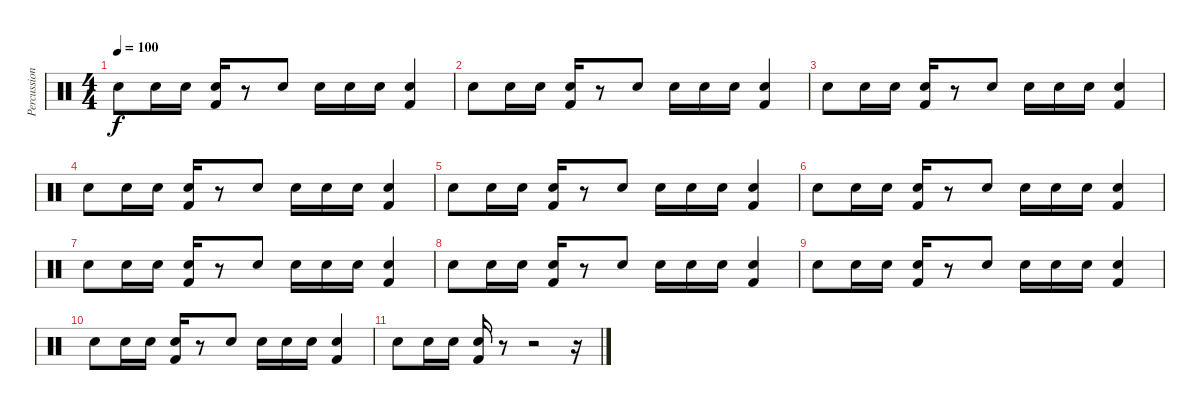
\track ("Percussions" "Percussion") {instrument percussion}
\staff {score}
\articulation defaults
\ts (4 4)
\tempo 100
\clef neutral
\ks c "Electric Snare (hit)".8{dy f} "Electric Snare (hit)".16 "Electric Snare (hit)".16
("Snare (hit) 2" "Kick (hit) 2").16 r.8 "Electric Snare (hit)".8 "Electric Snare (hit)".16 "Electric Snare (hit)".16 "Electric Snare (hit)".16 ("Snare (hit) 2" "Kick (hit) 2").4 |
"Electric Snare (hit)".8 "Electric Snare (hit)".16 "Electric Snare (hit)".16 ("Snare (hit) 2" "Kick (hit) 2").16 r.8 "Electric Snare (hit)".8 "Electric Snare (hit)".16 "Electric Snare (hit)".16 "Electric Snare (hit)".16 ("Snare (hit) 2" "Kick (hit) 2").4 |
"Electric Snare (hit)".8 "Electric Snare (hit)".16 "Electric Snare (hit)".16 ("Snare (hit) 2" "Kick (hit) 2").16 r.8 "Electric Snare (hit)".8 "Electric Snare (hit)".16 "Electric Snare (hit)".16 "Electric Snare (hit)".16 ("Snare (hit) 2" "Kick (hit) 2").4 |
"Electric Snare (hit)".8 "Electric Snare (hit)".16 "Electric Snare (hit)".16 ("Snare (hit) 2" "Kick (hit) 2").16 r.8 "Electric Snare (hit)".8 "Electric Snare (hit)".16 "Electric Snare (hit)".16 "Electric Snare (hit)".16 ("Snare (hit) 2" "Kick (hit) 2").4 |
"Electric Snare (hit)".8 "Electric Snare (hit)".16 "Electric Snare (hit)".16 ("Snare (hit) 2" "Kick (hit) 2").16 r.8 "Electric Snare (hit)".8 "Electric Snare (hit)".16 "Electric Snare (hit)".16 "Electric Snare (hit)".16 ("Snare (hit) 2" "Kick (hit) 2").4 |
"Electric Snare (hit)".8 "Electric Snare (hit)".16 "Electric Snare (hit)".16 ("Snare (hit) 2" "Kick (hit) 2").16 r.8 "Electric Snare (hit)".8 "Electric Snare (hit)".16 "Electric Snare (hit)".16 "Electric Snare (hit)".16 ("Snare (hit) 2" "Kick (hit) 2").4 |
"Electric Snare (hit)".8 "Electric Snare (hit)".16 "Electric Snare (hit)".16 ("Snare (hit) 2" "Kick (hit) 2").16 r.8 "Electric Snare (hit)".8 "Electric Snare (hit)".16 "Electric Snare (hit)".16 "Electric Snare (hit)".16 ("Snare (hit) 2" "Kick (hit) 2").4 |
"Electric Snare (hit)".8 "Electric Snare (hit)".16 "Electric Snare (hit)".16 ("Snare (hit) 2" "Kick (hit) 2").16 r.8 "Electric Snare (hit)".8 "Electric Snare (hit)".16 "Electric Snare (hit)".16 "Electric Snare (hit)".16 ("Snare (hit) 2" "Kick (hit) 2").4 |
"Electric Snare (hit)".8 "Electric Snare (hit)".16 "Electric Snare (hit)".16 ("Snare (hit) 2" "Kick (hit) 2").16 r.8 "Electric Snare (hit)".8 "Electric Snare (hit)".16 "Electric Snare (hit)".16 "Electric Snare (hit)".16 ("Snare (hit) 2" "Kick (hit) 2").4 |
"Electric Snare (hit)".8 "Electric Snare (hit)".16 "Electric Snare (hit)".16 ("Snare (hit) 2" "Kick (hit) 2").16 r.8 "Electric Snare (hit)".8 "Electric Snare (hit)".16 "Electric Snare (hit)".16 "Electric Snare (hit)".16 ("Snare (hit) 2" "Kick (hit) 2").4 |
"Electric Snare (hit)".8 "Electric Snare (hit)".16 "Electric Snare (hit)".16 ("Snare (hit) 2" "Kick (hit) 2").16 r.8 r.2 r.16
